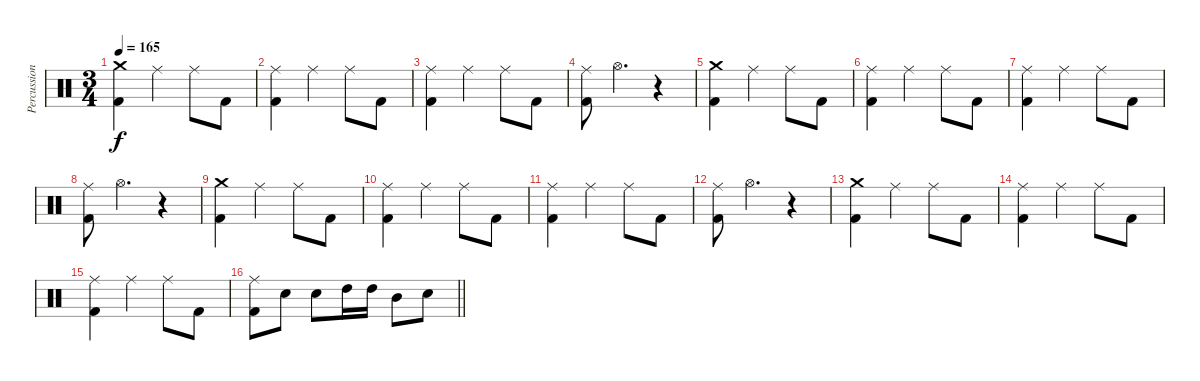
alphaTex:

\track ("Percussion" "Percussion") {instrument percussion}
\staff {score}
\articulation defaults
\ts (3 4)
\tempo 165
\clef neutral
\ks c
("Crash medium (hit)" "Kick (hit) 2").4{dy f} "Ride (middle)".4 "Ride (middle)".8 "Kick (hit) 2".8 |
("Ride (middle)" "Kick (hit) 2").4 "Ride (middle)".4 "Ride (middle)".8 "Kick (hit) 2".8 |
("Ride (middle)" "Kick (hit) 2").4 "Ride (middle)".4 "Ride (middle)".8 "Kick (hit) 2".8 |
("Ride (middle)" "Kick (hit) 2").8 "Hi-Hat (open)".4{d} r.4 |
("Crash medium (hit)" "Kick (hit) 2").4 "Ride (middle)".4 "Ride (middle)".8 "Kick (hit) 2".8 |
("Ride (middle)" "Kick (hit) 2").4 "Ride (middle)".4 "Ride (middle)".8 "Kick (hit) 2".8 |
("Ride (middle)" "Kick (hit) 2").4 "Ride (middle)".4 "Ride (middle)".8 "Kick (hit) 2".8 |
("Ride (middle)" "Kick (hit) 2").8 "Hi-Hat (open)".4{d} r.4 |
("Crash medium (hit)" "Kick (hit) 2").4 "Ride (middle)".4 "Ride (middle)".8 "Kick (hit) 2".8 |
("Ride (middle)" "Kick (hit) 2").4 "Ride (middle)".4 "Ride (middle)".8 "Kick (hit) 2".8 |
("Ride (middle)" "Kick (hit) 2").4 "Ride (middle)".4 "Ride (middle)".8 "Kick (hit) 2".8 |
("Ride (middle)" "Kick (hit) 2").8 "Hi-Hat (open)".4{d} r.4 |
("Crash medium (hit)" "Kick (hit) 2").4 "Ride (middle)".4 "Ride (middle)".8 "Kick (hit) 2".8 |
("Ride (middle)" "Kick (hit) 2").4 "Ride (middle)".4 "Ride (middle)".8 "Kick (hit) 2".8 |
("Ride (middle)" "Kick (hit) 2").4 "Ride (middle)".4 "Ride (middle)".8 "Kick (hit) 2".8 |
\barLineRight lightlight
("Ride (middle)" "Kick (hit) 2").8 "Snare (hit) 2".8 "Snare (hit) 2".8 "High Tom (hit)".16 "High Tom (hit)".16 "Mid Tom (hit)".8 "Snare (hit) 2".8
